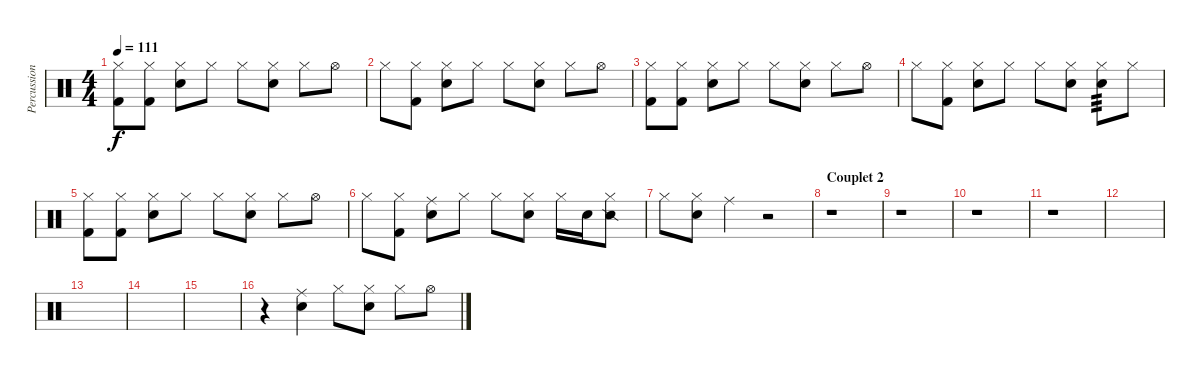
\track ("Percussions" "Percussion") {instrument percussion}
\staff {score}
\articulation defaults
\ts (4 4)
\tempo 111
\clef neutral
\ks c
("Hi-Hat (closed)" "Kick (hit) 2").8{dy f} ("Hi-Hat (closed)" "Kick (hit) 2").8 ("Hi-Hat (closed)" "Snare (hit) 2").8 "Hi-Hat (closed)".8 "Hi-Hat (closed)".8 ("Hi-Hat (closed)" "Snare (hit) 2").8 "Hi-Hat (closed)".8 "Hi-Hat (open)".8 |
"Hi-Hat (closed)".8 ("Hi-Hat (closed)" "Kick (hit) 2").8 ("Hi-Hat (closed)" "Snare (hit) 2").8 "Hi-Hat (closed)".8 "Hi-Hat (closed)".8 ("Hi-Hat (closed)" "Snare (hit) 2").8 "Hi-Hat (closed)".8 "Hi-Hat (open)".8 |
("Hi-Hat (closed)" "Kick (hit) 2").8 ("Hi-Hat (closed)" "Kick (hit) 2").8 ("Hi-Hat (closed)" "Snare (hit) 2").8 "Hi-Hat (closed)".8 "Hi-Hat (closed)".8 ("Hi-Hat (closed)" "Snare (hit) 2").8 "Hi-Hat (closed)".8 "Hi-Hat (open)".8 |
"Hi-Hat (closed)".8 ("Hi-Hat (closed)" "Kick (hit) 2").8 ("Hi-Hat (closed)" "Snare (hit) 2").8 "Hi-Hat (closed)".8 "Hi-Hat (closed)".8 ("Hi-Hat (closed)" "Snare (hit) 2").8 ("Hi-Hat (closed)" "Snare (hit) 2").8{tp 3} "Hi-Hat (closed)".8 |
("Hi-Hat (closed)" "Kick (hit) 2").8 ("Hi-Hat (closed)" "Kick (hit) 2").8 ("Hi-Hat (closed)" "Snare (hit) 2").8 "Hi-Hat (closed)".8 "Hi-Hat (closed)".8 ("Hi-Hat (closed)" "Snare (hit) 2").8 "Hi-Hat (closed)".8 "Hi-Hat (open)".8 |
"Hi-Hat (closed)".8 ("Hi-Hat (closed)" "Kick (hit) 2").8 ("Ride (middle)" "Snare (hit) 2").8 "Hi-Hat (closed)".8 "Hi-Hat (closed)".8 ("Hi-Hat (closed)" "Snare (hit) 2").8 "Hi-Hat (closed)".16 "Snare (hit) 2".16 ("Hi-Hat (closed)" "Snare (side stick) 2").8 |
"Hi-Hat (closed)".8 ("Hi-Hat (closed)" "Snare (hit) 2").8 "Ride (middle)".4 r.2 |
\section ("" "Couplet 2")
r.1 |
r.1 |
r.1 |
r.1 |
|
|
|
|
r.4 ("Ride (middle)" "Snare (hit) 2").4 "Hi-Hat (closed)".8 ("Hi-Hat (closed)" "Snare (hit) 2").8 "Hi-Hat (closed)".8 "Hi-Hat (open)".8
